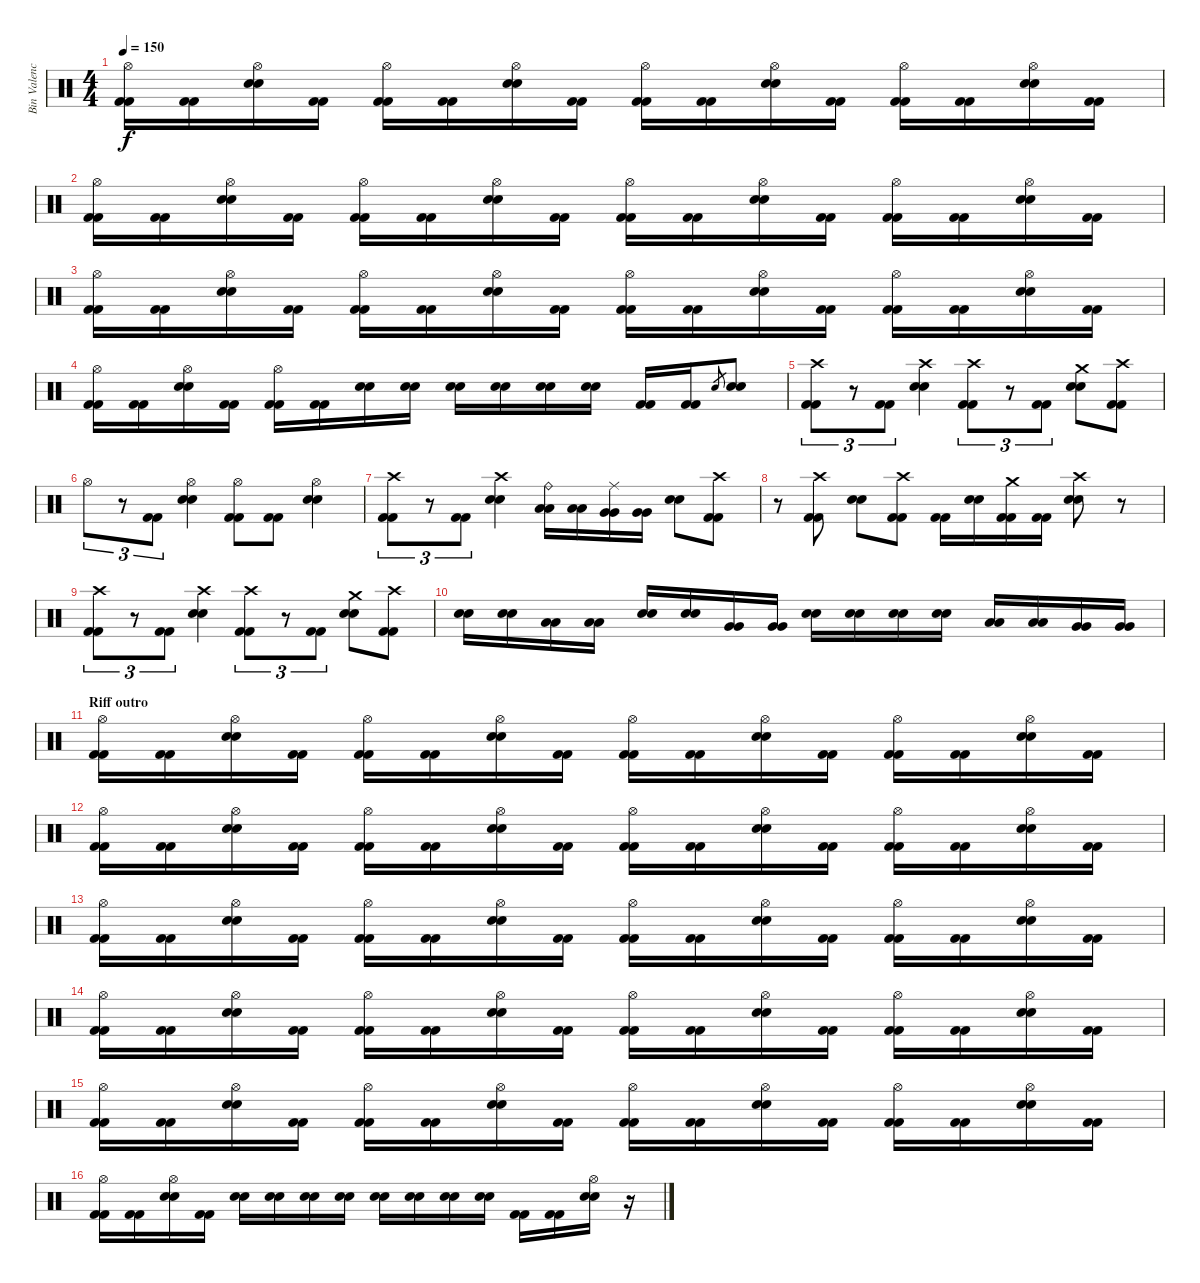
\track ("Bin Valencia (bateria)" "Bin Valenc") {instrument percussion}
\staff {score}
\articulation defaults
\ts (4 4)
\tempo 150
\clef neutral
\ks c
("Hi-Hat (open)" "Kick (hit) 2" "Kick (hit) 2").16{dy f} ("Kick (hit) 2" "Kick (hit) 2").16 ("Hi-Hat (open)" "Snare (hit) 2" "Snare (hit) 2").16 ("Kick (hit) 2" "Kick (hit) 2").16 ("Hi-Hat (open)" "Kick (hit) 2" "Kick (hit) 2").16 ("Kick (hit) 2" "Kick (hit) 2").16 ("Hi-Hat (open)" "Snare (hit) 2" "Snare (hit) 2").16 ("Kick (hit) 2" "Kick (hit) 2").16 ("Hi-Hat (open)" "Kick (hit) 2" "Kick (hit) 2").16 ("Kick (hit) 2" "Kick (hit) 2").16 ("Hi-Hat (open)" "Snare (hit) 2" "Snare (hit) 2").16 ("Kick (hit) 2" "Kick (hit) 2").16 ("Hi-Hat (open)" "Kick (hit) 2" "Kick (hit) 2").16 ("Kick (hit) 2" "Kick (hit) 2").16 ("Hi-Hat (open)" "Snare (hit) 2" "Snare (hit) 2").16 ("Kick (hit) 2" "Kick (hit) 2").16 |
("Hi-Hat (open)" "Kick (hit) 2" "Kick (hit) 2").16 ("Kick (hit) 2" "Kick (hit) 2").16 ("Hi-Hat (open)" "Snare (hit) 2" "Snare (hit) 2").16 ("Kick (hit) 2" "Kick (hit) 2").16 ("Hi-Hat (open)" "Kick (hit) 2" "Kick (hit) 2").16 ("Kick (hit) 2" "Kick (hit) 2").16 ("Hi-Hat (open)" "Snare (hit) 2" "Snare (hit) 2").16 ("Kick (hit) 2" "Kick (hit) 2").16 ("Hi-Hat (open)" "Kick (hit) 2" "Kick (hit) 2").16 ("Kick (hit) 2" "Kick (hit) 2").16 ("Hi-Hat (open)" "Snare (hit) 2" "Snare (hit) 2").16 ("Kick (hit) 2" "Kick (hit) 2").16 ("Hi-Hat (open)" "Kick (hit) 2" "Kick (hit) 2").16 ("Kick (hit) 2" "Kick (hit) 2").16 ("Hi-Hat (open)" "Snare (hit) 2" "Snare (hit) 2").16 ("Kick (hit) 2" "Kick (hit) 2").16 |
("Hi-Hat (open)" "Kick (hit) 2" "Kick (hit) 2").16 ("Kick (hit) 2" "Kick (hit) 2").16 ("Hi-Hat (open)" "Snare (hit) 2" "Snare (hit) 2").16 ("Kick (hit) 2" "Kick (hit) 2").16 ("Hi-Hat (open)" "Kick (hit) 2" "Kick (hit) 2").16 ("Kick (hit) 2" "Kick (hit) 2").16 ("Hi-Hat (open)" "Snare (hit) 2" "Snare (hit) 2").16 ("Kick (hit) 2" "Kick (hit) 2").16 ("Hi-Hat (open)" "Kick (hit) 2" "Kick (hit) 2").16 ("Kick (hit) 2" "Kick (hit) 2").16 ("Hi-Hat (open)" "Snare (hit) 2" "Snare (hit) 2").16 ("Kick (hit) 2" "Kick (hit) 2").16 ("Hi-Hat (open)" "Kick (hit) 2" "Kick (hit) 2").16 ("Kick (hit) 2" "Kick (hit) 2").16 ("Hi-Hat (open)" "Snare (hit) 2" "Snare (hit) 2").16 ("Kick (hit) 2" "Kick (hit) 2").16 |
("Hi-Hat (open)" "Kick (hit) 2" "Kick (hit) 2").16 ("Kick (hit) 2" "Kick (hit) 2").16 ("Hi-Hat (open)" "Snare (hit) 2" "Snare (hit) 2").16 ("Kick (hit) 2" "Kick (hit) 2").16 ("Hi-Hat (open)" "Kick (hit) 2" "Kick (hit) 2").16 ("Kick (hit) 2" "Kick (hit) 2").16 ("Snare (hit) 2" "Snare (hit) 2").16 ("Snare (hit) 2" "Snare (hit) 2").16 ("Snare (hit) 2" "Snare (hit) 2").16 ("Snare (hit) 2" "Snare (hit) 2").16 ("Snare (hit) 2" "Snare (hit) 2").16 ("Snare (hit) 2" "Snare (hit) 2").16 ("Kick (hit) 2" "Kick (hit) 2").16 ("Kick (hit) 2" "Kick (hit) 2").16 "Snare (hit) 2".8{gr} ("Snare (hit) 2" "Snare (hit) 2").8 |
("Crash high (hit)" "Kick (hit) 2" "Kick (hit) 2").8{tu (3 2)} r.8{tu (3 2)} ("Kick (hit) 2" "Kick (hit) 2").8{tu (3 2)} ("Crash high (hit)" "Snare (hit) 2" "Snare (hit) 2").4 ("Crash high (hit)" "Kick (hit) 2" "Kick (hit) 2").8{tu (3 2)} r.8{tu (3 2)} ("Kick (hit) 2" "Kick (hit) 2").8{tu (3 2)} ("Crash medium (hit)" "Snare (hit) 2" "Snare (hit) 2").8 ("Crash high (hit)" "Kick (hit) 2" "Kick (hit) 2").8 |
"Hi-Hat (open)".8{tu (3 2)} r.8{tu (3 2)} ("Kick (hit) 2" "Kick (hit) 2").8{tu (3 2)} ("Hi-Hat (open)" "Snare (hit) 2" "Snare (hit) 2").4 ("Hi-Hat (open)" "Kick (hit) 2" "Kick (hit) 2").8 ("Kick (hit) 2" "Kick (hit) 2").8 ("Hi-Hat (open)" "Snare (hit) 2" "Snare (hit) 2").4 |
("Crash high (hit)" "Kick (hit) 2" "Kick (hit) 2").8{tu (3 2)} r.8{tu (3 2)} ("Kick (hit) 2" "Kick (hit) 2").8{tu (3 2)} ("Crash high (hit)" "Snare (hit) 2" "Snare (hit) 2").4 ("Ride (bell)" "Low Tom (hit)" "Low Tom (hit)").16 ("Low Tom (hit)" "Low Tom (hit)").16 ("Ride (middle)" "Very Low Tom (hit)" "Very Low Tom (hit)").16 ("Very Low Tom (hit)" "Very Low Tom (hit)").16 ("Electric Snare (hit)" "Electric Snare (hit)").8 ("Crash high (hit)" "Kick (hit) 2" "Kick (hit) 2").8 |
r.8 ("Crash high (hit)" "Kick (hit) 2" "Kick (hit) 2").8 ("Snare (hit) 2" "Snare (hit) 2").8 ("Crash high (hit)" "Kick (hit) 2" "Kick (hit) 2").8 ("Kick (hit) 2" "Kick (hit) 2").16 ("Snare (hit) 2" "Snare (hit) 2").16 ("Crash medium (hit)" "Kick (hit) 2" "Kick (hit) 2").16 ("Kick (hit) 2" "Kick (hit) 2").16 ("Crash high (hit)" "Snare (hit) 2" "Snare (hit) 2").8 r.8 |
("Crash high (hit)" "Kick (hit) 2" "Kick (hit) 2").8{tu (3 2)} r.8{tu (3 2)} ("Kick (hit) 2" "Kick (hit) 2").8{tu (3 2)} ("Crash high (hit)" "Snare (hit) 2" "Snare (hit) 2").4 ("Crash high (hit)" "Kick (hit) 2" "Kick (hit) 2").8{tu (3 2)} r.8{tu (3 2)} ("Kick (hit) 2" "Kick (hit) 2").8{tu (3 2)} ("Crash medium (hit)" "Snare (hit) 2" "Snare (hit) 2").8 ("Crash high (hit)" "Kick (hit) 2" "Kick (hit) 2").8 |
("Snare (hit) 2" "Snare (hit) 2").16 ("Snare (hit) 2" "Snare (hit) 2").16 ("Low Tom (hit)" "Low Tom (hit)").16 ("Low Tom (hit)" "Low Tom (hit)").16 ("Snare (hit) 2" "Snare (hit) 2").16 ("Snare (hit) 2" "Snare (hit) 2").16 ("Very Low Tom (hit)" "Very Low Tom (hit)").16 ("Very Low Tom (hit)" "Very Low Tom (hit)").16 ("Snare (hit) 2" "Snare (hit) 2").16 ("Snare (hit) 2" "Snare (hit) 2").16 ("Snare (hit) 2" "Snare (hit) 2").16 ("Snare (hit) 2" "Snare (hit) 2").16 ("Low Tom (hit)" "Low Tom (hit)").16 ("Low Tom (hit)" "Low Tom (hit)").16 ("Very Low Tom (hit)" "Very Low Tom (hit)").16 ("Very Low Tom (hit)" "Very Low Tom (hit)").16 |
\section ("" "Riff outro")
("Hi-Hat (open)" "Kick (hit) 2" "Kick (hit) 2").16 ("Kick (hit) 2" "Kick (hit) 2").16 ("Hi-Hat (open)" "Snare (hit) 2" "Snare (hit) 2").16 ("Kick (hit) 2" "Kick (hit) 2").16 ("Hi-Hat (open)" "Kick (hit) 2" "Kick (hit) 2").16 ("Kick (hit) 2" "Kick (hit) 2").16 ("Hi-Hat (open)" "Snare (hit) 2" "Snare (hit) 2").16 ("Kick (hit) 2" "Kick (hit) 2").16 ("Hi-Hat (open)" "Kick (hit) 2" "Kick (hit) 2").16 ("Kick (hit) 2" "Kick (hit) 2").16 ("Hi-Hat (open)" "Snare (hit) 2" "Snare (hit) 2").16 ("Kick (hit) 2" "Kick (hit) 2").16 ("Hi-Hat (open)" "Kick (hit) 2" "Kick (hit) 2").16 ("Kick (hit) 2" "Kick (hit) 2").16 ("Hi-Hat (open)" "Snare (hit) 2" "Snare (hit) 2").16 ("Kick (hit) 2" "Kick (hit) 2").16 |
("Hi-Hat (open)" "Kick (hit) 2" "Kick (hit) 2").16 ("Kick (hit) 2" "Kick (hit) 2").16 ("Hi-Hat (open)" "Snare (hit) 2" "Snare (hit) 2").16 ("Kick (hit) 2" "Kick (hit) 2").16 ("Hi-Hat (open)" "Kick (hit) 2" "Kick (hit) 2").16 ("Kick (hit) 2" "Kick (hit) 2").16 ("Hi-Hat (open)" "Snare (hit) 2" "Snare (hit) 2").16 ("Kick (hit) 2" "Kick (hit) 2").16 ("Hi-Hat (open)" "Kick (hit) 2" "Kick (hit) 2").16 ("Kick (hit) 2" "Kick (hit) 2").16 ("Hi-Hat (open)" "Snare (hit) 2" "Snare (hit) 2").16 ("Kick (hit) 2" "Kick (hit) 2").16 ("Hi-Hat (open)" "Kick (hit) 2" "Kick (hit) 2").16 ("Kick (hit) 2" "Kick (hit) 2").16 ("Hi-Hat (open)" "Snare (hit) 2" "Snare (hit) 2").16 ("Kick (hit) 2" "Kick (hit) 2").16 |
("Hi-Hat (open)" "Kick (hit) 2" "Kick (hit) 2").16 ("Kick (hit) 2" "Kick (hit) 2").16 ("Hi-Hat (open)" "Snare (hit) 2" "Snare (hit) 2").16 ("Kick (hit) 2" "Kick (hit) 2").16 ("Hi-Hat (open)" "Kick (hit) 2" "Kick (hit) 2").16 ("Kick (hit) 2" "Kick (hit) 2").16 ("Hi-Hat (open)" "Snare (hit) 2" "Snare (hit) 2").16 ("Kick (hit) 2" "Kick (hit) 2").16 ("Hi-Hat (open)" "Kick (hit) 2" "Kick (hit) 2").16 ("Kick (hit) 2" "Kick (hit) 2").16 ("Hi-Hat (open)" "Snare (hit) 2" "Snare (hit) 2").16 ("Kick (hit) 2" "Kick (hit) 2").16 ("Hi-Hat (open)" "Kick (hit) 2" "Kick (hit) 2").16 ("Kick (hit) 2" "Kick (hit) 2").16 ("Hi-Hat (open)" "Snare (hit) 2" "Snare (hit) 2").16 ("Kick (hit) 2" "Kick (hit) 2").16 |
("Hi-Hat (open)" "Kick (hit) 2" "Kick (hit) 2").16 ("Kick (hit) 2" "Kick (hit) 2").16 ("Hi-Hat (open)" "Snare (hit) 2" "Snare (hit) 2").16 ("Kick (hit) 2" "Kick (hit) 2").16 ("Hi-Hat (open)" "Kick (hit) 2" "Kick (hit) 2").16 ("Kick (hit) 2" "Kick (hit) 2").16 ("Hi-Hat (open)" "Snare (hit) 2" "Snare (hit) 2").16 ("Kick (hit) 2" "Kick (hit) 2").16 ("Hi-Hat (open)" "Kick (hit) 2" "Kick (hit) 2").16 ("Kick (hit) 2" "Kick (hit) 2").16 ("Hi-Hat (open)" "Snare (hit) 2" "Snare (hit) 2").16 ("Kick (hit) 2" "Kick (hit) 2").16 ("Hi-Hat (open)" "Kick (hit) 2" "Kick (hit) 2").16 ("Kick (hit) 2" "Kick (hit) 2").16 ("Hi-Hat (open)" "Snare (hit) 2" "Snare (hit) 2").16 ("Kick (hit) 2" "Kick (hit) 2").16 |
("Hi-Hat (open)" "Kick (hit) 2" "Kick (hit) 2").16 ("Kick (hit) 2" "Kick (hit) 2").16 ("Hi-Hat (open)" "Snare (hit) 2" "Snare (hit) 2").16 ("Kick (hit) 2" "Kick (hit) 2").16 ("Hi-Hat (open)" "Kick (hit) 2" "Kick (hit) 2").16 ("Kick (hit) 2" "Kick (hit) 2").16 ("Hi-Hat (open)" "Snare (hit) 2" "Snare (hit) 2").16 ("Kick (hit) 2" "Kick (hit) 2").16 ("Hi-Hat (open)" "Kick (hit) 2" "Kick (hit) 2").16 ("Kick (hit) 2" "Kick (hit) 2").16 ("Hi-Hat (open)" "Snare (hit) 2" "Snare (hit) 2").16 ("Kick (hit) 2" "Kick (hit) 2").16 ("Hi-Hat (open)" "Kick (hit) 2" "Kick (hit) 2").16 ("Kick (hit) 2" "Kick (hit) 2").16 ("Hi-Hat (open)" "Snare (hit) 2" "Snare (hit) 2").16 ("Kick (hit) 2" "Kick (hit) 2").16 |
("Hi-Hat (open)" "Kick (hit) 2" "Kick (hit) 2").16 ("Kick (hit) 2" "Kick (hit) 2").16 ("Hi-Hat (open)" "Snare (hit) 2" "Snare (hit) 2").16 ("Kick (hit) 2" "Kick (hit) 2").16 ("Snare (hit) 2" "Snare (hit) 2").16 ("Snare (hit) 2" "Snare (hit) 2").16 ("Snare (hit) 2" "Snare (hit) 2").16 ("Snare (hit) 2" "Snare (hit) 2").16 ("Snare (hit) 2" "Snare (hit) 2").16 ("Snare (hit) 2" "Snare (hit) 2").16 ("Snare (hit) 2" "Snare (hit) 2").16 ("Snare (hit) 2" "Snare (hit) 2").16 ("Kick (hit) 2" "Kick (hit) 2").16 ("Kick (hit) 2" "Kick (hit) 2").16 ("Hi-Hat (open)" "Snare (hit) 2" "Snare (hit) 2").16 r.16
